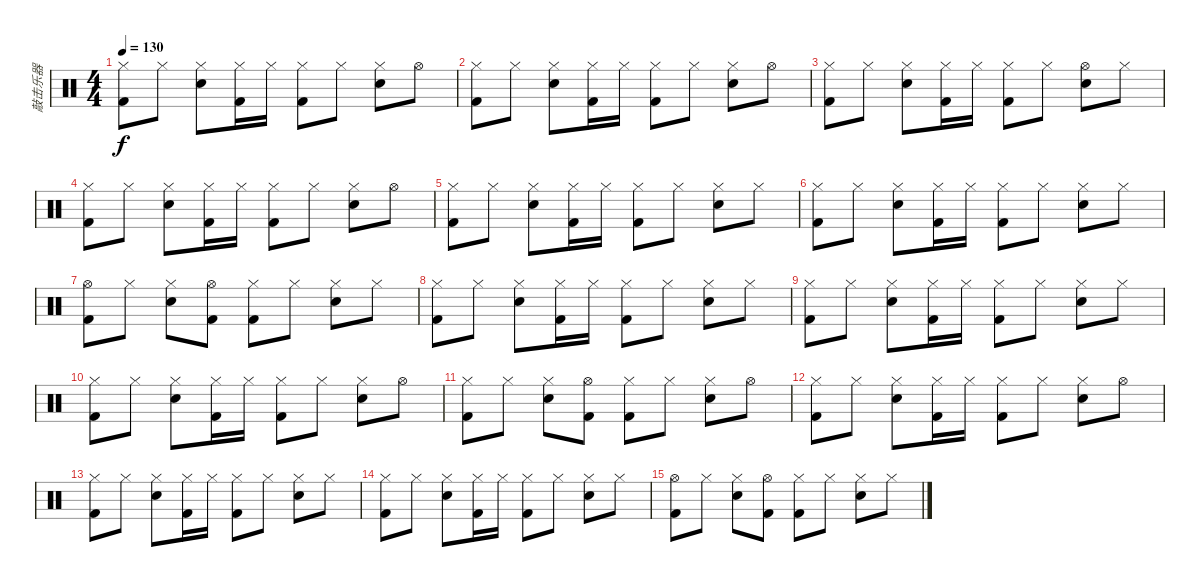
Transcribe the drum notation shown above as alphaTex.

\track ("敲击乐器" "敲击乐器") {instrument percussion}
\staff {score}
\articulation defaults
\ts (4 4)
\tempo 130
\clef neutral
\ks c
("Hi-Hat (closed)" "Kick (hit) 2").8{dy f} "Hi-Hat (closed)".8 ("Hi-Hat (closed)" "Snare (hit) 2").8 ("Hi-Hat (closed)" "Kick (hit) 2").16 "Hi-Hat (closed)".16 ("Hi-Hat (closed)" "Kick (hit) 2").8 "Hi-Hat (closed)".8 ("Hi-Hat (closed)" "Snare (hit) 2").8 "Hi-Hat (open)".8 |
("Hi-Hat (closed)" "Kick (hit) 2").8 "Hi-Hat (closed)".8 ("Hi-Hat (closed)" "Snare (hit) 2").8 ("Hi-Hat (closed)" "Kick (hit) 2").16 "Hi-Hat (closed)".16 ("Hi-Hat (closed)" "Kick (hit) 2").8 "Hi-Hat (closed)".8 ("Hi-Hat (closed)" "Snare (hit) 2").8 "Hi-Hat (open)".8 |
("Hi-Hat (closed)" "Kick (hit) 2").8 "Hi-Hat (closed)".8 ("Hi-Hat (closed)" "Snare (hit) 2").8 ("Hi-Hat (closed)" "Kick (hit) 2").16 "Hi-Hat (closed)".16 ("Hi-Hat (closed)" "Kick (hit) 2").8 "Hi-Hat (closed)".8 ("Hi-Hat (open)" "Snare (hit) 2").8 "Hi-Hat (closed)".8 |
("Hi-Hat (closed)" "Kick (hit) 2").8 "Hi-Hat (closed)".8 ("Hi-Hat (closed)" "Snare (hit) 2").8 ("Hi-Hat (closed)" "Kick (hit) 2").16 "Hi-Hat (closed)".16 ("Hi-Hat (closed)" "Kick (hit) 2").8 "Hi-Hat (closed)".8 ("Hi-Hat (closed)" "Snare (hit) 2").8 "Hi-Hat (open)".8 |
("Hi-Hat (closed)" "Kick (hit) 2").8 "Hi-Hat (closed)".8 ("Hi-Hat (closed)" "Snare (hit) 2").8 ("Hi-Hat (closed)" "Kick (hit) 2").16 "Hi-Hat (closed)".16 ("Hi-Hat (closed)" "Kick (hit) 2").8 "Hi-Hat (closed)".8 ("Hi-Hat (closed)" "Snare (hit) 2").8 "Hi-Hat (closed)".8 |
("Hi-Hat (closed)" "Kick (hit) 2").8 "Hi-Hat (closed)".8 ("Hi-Hat (closed)" "Snare (hit) 2").8 ("Hi-Hat (closed)" "Kick (hit) 2").16 "Hi-Hat (closed)".16 ("Hi-Hat (closed)" "Kick (hit) 2").8 "Hi-Hat (closed)".8 ("Hi-Hat (closed)" "Snare (hit) 2").8 "Hi-Hat (closed)".8 |
("Hi-Hat (open)" "Kick (hit) 2").8 "Hi-Hat (closed)".8 ("Hi-Hat (closed)" "Snare (hit) 2").8 ("Hi-Hat (open)" "Kick (hit) 2").8 ("Hi-Hat (closed)" "Kick (hit) 2").8 "Hi-Hat (closed)".8 ("Hi-Hat (closed)" "Snare (hit) 2").8 "Hi-Hat (closed)".8 |
("Hi-Hat (closed)" "Kick (hit) 2").8 "Hi-Hat (closed)".8 ("Hi-Hat (closed)" "Snare (hit) 2").8 ("Hi-Hat (closed)" "Kick (hit) 2").16 "Hi-Hat (closed)".16 ("Hi-Hat (closed)" "Kick (hit) 2").8 "Hi-Hat (closed)".8 ("Hi-Hat (closed)" "Snare (hit) 2").8 "Hi-Hat (closed)".8 |
("Hi-Hat (closed)" "Kick (hit) 2").8 "Hi-Hat (closed)".8 ("Hi-Hat (closed)" "Snare (hit) 2").8 ("Hi-Hat (closed)" "Kick (hit) 2").16 "Hi-Hat (closed)".16 ("Hi-Hat (closed)" "Kick (hit) 2").8 "Hi-Hat (closed)".8 ("Hi-Hat (closed)" "Snare (hit) 2").8 "Hi-Hat (closed)".8 |
("Hi-Hat (closed)" "Kick (hit) 2").8 "Hi-Hat (closed)".8 ("Hi-Hat (closed)" "Snare (hit) 2").8 ("Hi-Hat (closed)" "Kick (hit) 2").16 "Hi-Hat (closed)".16 ("Hi-Hat (closed)" "Kick (hit) 2").8 "Hi-Hat (closed)".8 ("Hi-Hat (closed)" "Snare (hit) 2").8 "Hi-Hat (open)".8 |
("Hi-Hat (closed)" "Kick (hit) 2").8 "Hi-Hat (closed)".8 ("Hi-Hat (closed)" "Snare (hit) 2").8 ("Hi-Hat (open)" "Kick (hit) 2").8 ("Hi-Hat (closed)" "Kick (hit) 2").8 "Hi-Hat (closed)".8 ("Hi-Hat (closed)" "Snare (hit) 2").8 "Hi-Hat (open)".8 |
("Hi-Hat (closed)" "Kick (hit) 2").8 "Hi-Hat (closed)".8 ("Hi-Hat (closed)" "Snare (hit) 2").8 ("Hi-Hat (closed)" "Kick (hit) 2").16 "Hi-Hat (closed)".16 ("Hi-Hat (closed)" "Kick (hit) 2").8 "Hi-Hat (closed)".8 ("Hi-Hat (closed)" "Snare (hit) 2").8 "Hi-Hat (open)".8 |
("Hi-Hat (closed)" "Kick (hit) 2").8 "Hi-Hat (closed)".8 ("Hi-Hat (closed)" "Snare (hit) 2").8 ("Hi-Hat (closed)" "Kick (hit) 2").16 "Hi-Hat (closed)".16 ("Hi-Hat (closed)" "Kick (hit) 2").8 "Hi-Hat (closed)".8 ("Hi-Hat (closed)" "Snare (hit) 2").8 "Hi-Hat (closed)".8 |
("Hi-Hat (closed)" "Kick (hit) 2").8 "Hi-Hat (closed)".8 ("Hi-Hat (closed)" "Snare (hit) 2").8 ("Hi-Hat (closed)" "Kick (hit) 2").16 "Hi-Hat (closed)".16 ("Hi-Hat (closed)" "Kick (hit) 2").8 "Hi-Hat (closed)".8 ("Hi-Hat (closed)" "Snare (hit) 2").8 "Hi-Hat (closed)".8 |
("Hi-Hat (open)" "Kick (hit) 2").8 "Hi-Hat (closed)".8 ("Hi-Hat (closed)" "Snare (hit) 2").8 ("Hi-Hat (open)" "Kick (hit) 2").8 ("Hi-Hat (closed)" "Kick (hit) 2").8 "Hi-Hat (closed)".8 ("Hi-Hat (closed)" "Snare (hit) 2").8 "Hi-Hat (closed)".8
